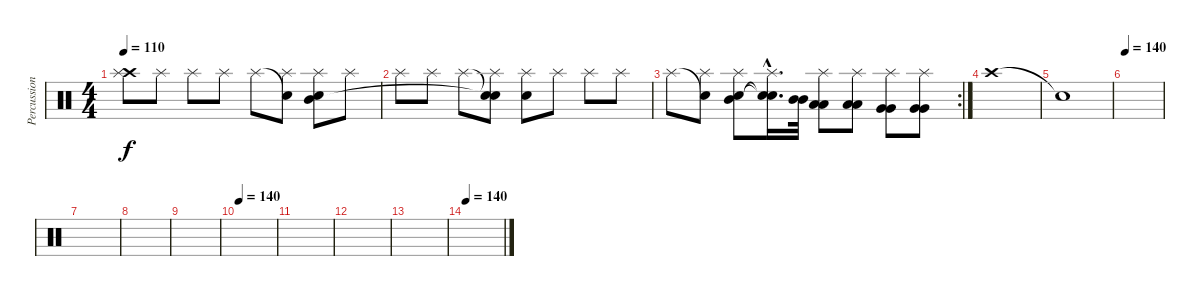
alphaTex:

\track ("Percussions" "Percussion") {instrument percussion}
\staff {score}
\articulation defaults
\ts (4 4)
\tempo 110
\clef neutral
\ks c
("Crash high (hit)" "Splash (hit)").8{dy f} "Splash (hit)".8 "Splash (hit)".8 "Splash (hit)".8 "Splash (hit)".8 ("Electric Snare (hit)"{t} "Splash (hit)").8 ("Electric Snare (hit)" "Mid Tom (hit)" "Splash (hit)").8 "Splash (hit)".8 |
"Splash (hit)".8 "Splash (hit)".8 "Splash (hit)".8 ("Snare (hit)"{t} "Snare (hit)"{t} "Splash (hit)").8 ("Electric Snare (hit)" "Splash (hit)").8 "Splash (hit)".8 "Splash (hit)".8 "Splash (hit)".8 |
\rc 2 "Splash (hit)".8
("Snare (hit)"{t} "Splash (hit)").8 ("Electric Snare (hit)" "Mid Tom (hit)" "Splash (hit)").8 ("Snare (hit)"{hac t} "Snare (hit)"{hac t} "Splash (hit)"{hac}).16{d} ("Mid Tom (hit)" "Mid Tom (hit)").32 ("Low Tom (hit)" "Low Tom (hit)" "Splash (hit)").8 ("Low Tom (hit)" "Low Tom (hit)" "Splash (hit)").8 ("Very Low Tom (hit)" "Very Low Tom (hit)" "Splash (hit)").8 ("Very Low Tom (hit)" "Very Low Tom (hit)" "Splash (hit)").8 |
"Crash high (hit)".1 |
"Snare (hit)"{t}.1 |
\tempo 140
|
|
|
|
\tempo 140
|
|
|
|
\tempo 140
